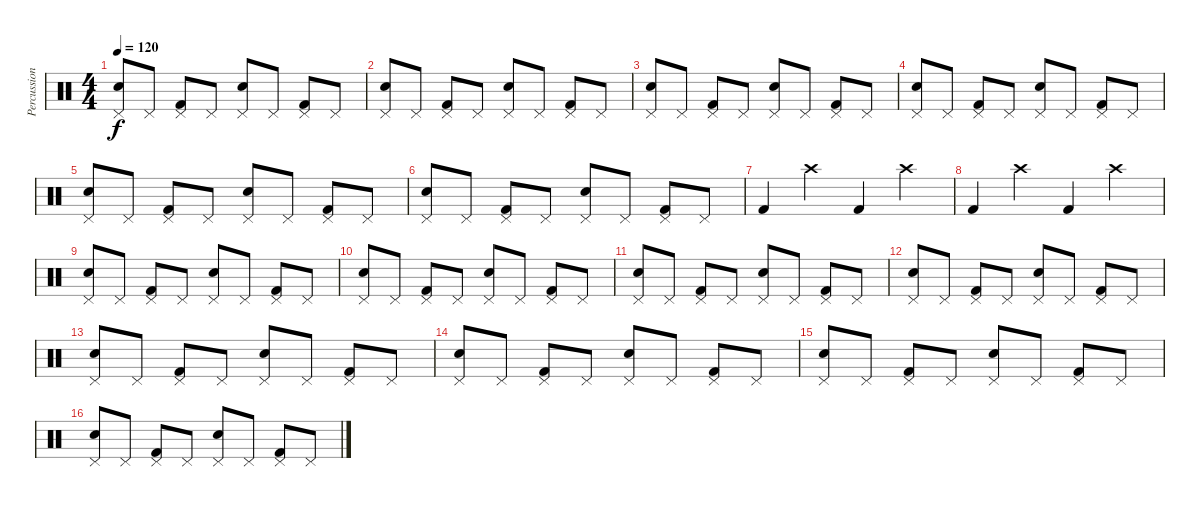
\track ("Percussion" "Percussion") {instrument percussion}
\staff {score}
\articulation defaults
\ts (4 4)
\tempo 120
\clef neutral
\ks c
("Pedal Hi-Hat (hit)" "Snare (hit) 2").8{dy f} "Pedal Hi-Hat (hit)".8 ("Pedal Hi-Hat (hit)" "Kick (hit) 2").8 "Pedal Hi-Hat (hit)".8 ("Pedal Hi-Hat (hit)" "Snare (hit) 2").8 "Pedal Hi-Hat (hit)".8 ("Pedal Hi-Hat (hit)" "Kick (hit) 2").8 "Pedal Hi-Hat (hit)".8 |
("Pedal Hi-Hat (hit)" "Snare (hit) 2").8 "Pedal Hi-Hat (hit)".8 ("Pedal Hi-Hat (hit)" "Kick (hit) 2").8 "Pedal Hi-Hat (hit)".8 ("Pedal Hi-Hat (hit)" "Snare (hit) 2").8 "Pedal Hi-Hat (hit)".8 ("Pedal Hi-Hat (hit)" "Kick (hit) 2").8 "Pedal Hi-Hat (hit)".8 |
("Pedal Hi-Hat (hit)" "Snare (hit) 2").8 "Pedal Hi-Hat (hit)".8 ("Pedal Hi-Hat (hit)" "Kick (hit) 2").8 "Pedal Hi-Hat (hit)".8 ("Pedal Hi-Hat (hit)" "Snare (hit) 2").8 "Pedal Hi-Hat (hit)".8 ("Pedal Hi-Hat (hit)" "Kick (hit) 2").8 "Pedal Hi-Hat (hit)".8 |
("Pedal Hi-Hat (hit)" "Snare (hit) 2").8 "Pedal Hi-Hat (hit)".8 ("Pedal Hi-Hat (hit)" "Kick (hit) 2").8 "Pedal Hi-Hat (hit)".8 ("Pedal Hi-Hat (hit)" "Snare (hit) 2").8 "Pedal Hi-Hat (hit)".8 ("Pedal Hi-Hat (hit)" "Kick (hit) 2").8 "Pedal Hi-Hat (hit)".8 |
("Pedal Hi-Hat (hit)" "Snare (hit) 2").8 "Pedal Hi-Hat (hit)".8 ("Pedal Hi-Hat (hit)" "Kick (hit) 2").8 "Pedal Hi-Hat (hit)".8 ("Pedal Hi-Hat (hit)" "Snare (hit) 2").8 "Pedal Hi-Hat (hit)".8 ("Pedal Hi-Hat (hit)" "Kick (hit) 2").8 "Pedal Hi-Hat (hit)".8 |
("Pedal Hi-Hat (hit)" "Snare (hit) 2").8 "Pedal Hi-Hat (hit)".8 ("Pedal Hi-Hat (hit)" "Kick (hit) 2").8 "Pedal Hi-Hat (hit)".8 ("Pedal Hi-Hat (hit)" "Snare (hit) 2").8 "Pedal Hi-Hat (hit)".8 ("Pedal Hi-Hat (hit)" "Kick (hit) 2").8 "Pedal Hi-Hat (hit)".8 |
"Kick (hit) 2".4 "Crash high (hit)".4 "Kick (hit) 2".4 "Crash high (hit)".4 |
"Kick (hit) 2".4 "Crash high (hit)".4 "Kick (hit) 2".4 "Crash high (hit)".4 |
("Pedal Hi-Hat (hit)" "Snare (hit) 2").8 "Pedal Hi-Hat (hit)".8 ("Pedal Hi-Hat (hit)" "Kick (hit) 2").8 "Pedal Hi-Hat (hit)".8 ("Pedal Hi-Hat (hit)" "Snare (hit) 2").8 "Pedal Hi-Hat (hit)".8 ("Pedal Hi-Hat (hit)" "Kick (hit) 2").8 "Pedal Hi-Hat (hit)".8 |
("Pedal Hi-Hat (hit)" "Snare (hit) 2").8 "Pedal Hi-Hat (hit)".8 ("Pedal Hi-Hat (hit)" "Kick (hit) 2").8 "Pedal Hi-Hat (hit)".8 ("Pedal Hi-Hat (hit)" "Snare (hit) 2").8 "Pedal Hi-Hat (hit)".8 ("Pedal Hi-Hat (hit)" "Kick (hit) 2").8 "Pedal Hi-Hat (hit)".8 |
("Pedal Hi-Hat (hit)" "Snare (hit) 2").8 "Pedal Hi-Hat (hit)".8 ("Pedal Hi-Hat (hit)" "Kick (hit) 2").8 "Pedal Hi-Hat (hit)".8 ("Pedal Hi-Hat (hit)" "Snare (hit) 2").8 "Pedal Hi-Hat (hit)".8 ("Pedal Hi-Hat (hit)" "Kick (hit) 2").8 "Pedal Hi-Hat (hit)".8 |
("Pedal Hi-Hat (hit)" "Snare (hit) 2").8 "Pedal Hi-Hat (hit)".8 ("Pedal Hi-Hat (hit)" "Kick (hit) 2").8 "Pedal Hi-Hat (hit)".8 ("Pedal Hi-Hat (hit)" "Snare (hit) 2").8 "Pedal Hi-Hat (hit)".8 ("Pedal Hi-Hat (hit)" "Kick (hit) 2").8 "Pedal Hi-Hat (hit)".8 |
("Pedal Hi-Hat (hit)" "Snare (hit) 2").8 "Pedal Hi-Hat (hit)".8 ("Pedal Hi-Hat (hit)" "Kick (hit) 2").8 "Pedal Hi-Hat (hit)".8 ("Pedal Hi-Hat (hit)" "Snare (hit) 2").8 "Pedal Hi-Hat (hit)".8 ("Pedal Hi-Hat (hit)" "Kick (hit) 2").8 "Pedal Hi-Hat (hit)".8 |
("Pedal Hi-Hat (hit)" "Snare (hit) 2").8 "Pedal Hi-Hat (hit)".8 ("Pedal Hi-Hat (hit)" "Kick (hit) 2").8 "Pedal Hi-Hat (hit)".8 ("Pedal Hi-Hat (hit)" "Snare (hit) 2").8 "Pedal Hi-Hat (hit)".8 ("Pedal Hi-Hat (hit)" "Kick (hit) 2").8 "Pedal Hi-Hat (hit)".8 |
("Pedal Hi-Hat (hit)" "Snare (hit) 2").8 "Pedal Hi-Hat (hit)".8 ("Pedal Hi-Hat (hit)" "Kick (hit) 2").8 "Pedal Hi-Hat (hit)".8 ("Pedal Hi-Hat (hit)" "Snare (hit) 2").8 "Pedal Hi-Hat (hit)".8 ("Pedal Hi-Hat (hit)" "Kick (hit) 2").8 "Pedal Hi-Hat (hit)".8 |
("Pedal Hi-Hat (hit)" "Snare (hit) 2").8 "Pedal Hi-Hat (hit)".8 ("Pedal Hi-Hat (hit)" "Kick (hit) 2").8 "Pedal Hi-Hat (hit)".8 ("Pedal Hi-Hat (hit)" "Snare (hit) 2").8 "Pedal Hi-Hat (hit)".8 ("Pedal Hi-Hat (hit)" "Kick (hit) 2").8 "Pedal Hi-Hat (hit)".8
